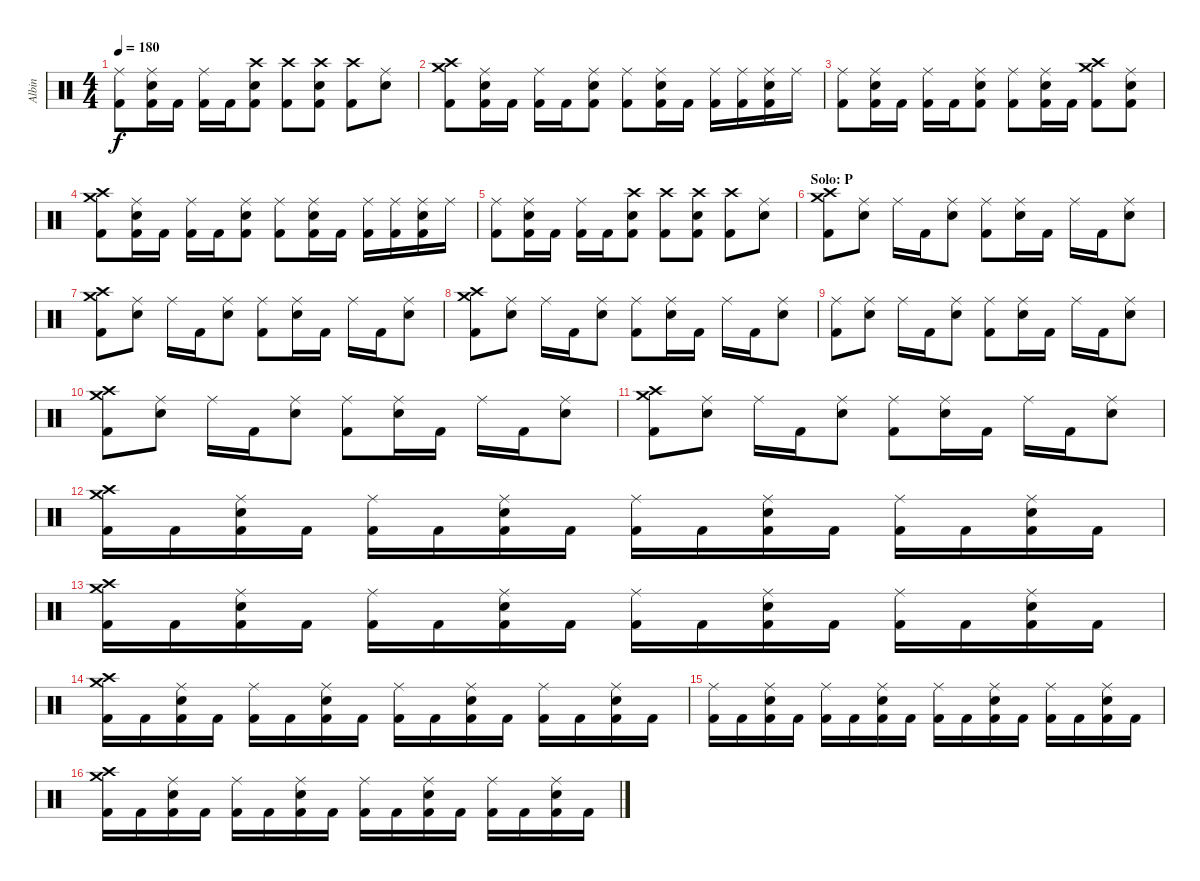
\track ("Albin" "Albin") {instrument percussion}
\staff {score}
\articulation defaults
\ts (4 4)
\tempo 180
\clef neutral
\ks c
("Kick (hit) 2" "Ride (middle)").8{dy f} ("Kick (hit) 2" "Electric Snare (hit)" "Ride (middle)").16 "Kick (hit) 2".16 ("Kick (hit) 2" "Ride (middle)").16 "Kick (hit) 2".16 ("Kick (hit) 2" "Electric Snare (hit)" "Crash high (hit)").8 ("Kick (hit) 2" "Crash high (hit)").8 ("Kick (hit) 2" "Electric Snare (hit)" "Crash high (hit)").8 ("Kick (hit) 2" "Crash high (hit)").8 ("Electric Snare (hit)" "Ride (middle)").8 |
("Kick (hit) 2" "Crash high (hit)" "Crash medium (hit)").8 ("Kick (hit) 2" "Electric Snare (hit)" "Ride (middle)").16 "Kick (hit) 2".16 ("Kick (hit) 2" "Ride (middle)").16 "Kick (hit) 2".16 ("Kick (hit) 2" "Electric Snare (hit)" "Ride (middle)").8 ("Kick (hit) 2" "Ride (middle)").8 ("Kick (hit) 2" "Electric Snare (hit)" "Ride (middle)").16 "Kick (hit) 2".16 ("Kick (hit) 2" "Ride (middle)").16 ("Kick (hit) 2" "Ride (middle)").16 ("Kick (hit) 2" "Electric Snare (hit)" "Ride (middle)").16 "Ride (middle)".16 |
("Kick (hit) 2" "Ride (middle)").8 ("Kick (hit) 2" "Electric Snare (hit)" "Ride (middle)").16 "Kick (hit) 2".16 ("Kick (hit) 2" "Ride (middle)").16 "Kick (hit) 2".16 ("Kick (hit) 2" "Electric Snare (hit)" "Ride (middle)").8 ("Kick (hit) 2" "Ride (middle)").8 ("Kick (hit) 2" "Electric Snare (hit)" "Ride (middle)").16 "Kick (hit) 2".16 ("Kick (hit) 2" "Crash high (hit)" "Crash medium (hit)").8 ("Kick (hit) 2" "Electric Snare (hit)" "Ride (middle)").8 |
("Kick (hit) 2" "Crash high (hit)" "Crash medium (hit)").8 ("Kick (hit) 2" "Electric Snare (hit)" "Ride (middle)").16 "Kick (hit) 2".16 ("Kick (hit) 2" "Ride (middle)").16 "Kick (hit) 2".16 ("Kick (hit) 2" "Electric Snare (hit)" "Ride (middle)").8 ("Kick (hit) 2" "Ride (middle)").8 ("Kick (hit) 2" "Electric Snare (hit)" "Ride (middle)").16 "Kick (hit) 2".16 ("Kick (hit) 2" "Ride (middle)").16 ("Kick (hit) 2" "Ride (middle)").16 ("Kick (hit) 2" "Electric Snare (hit)" "Ride (middle)").16 "Ride (middle)".16 |
("Kick (hit) 2" "Ride (middle)").8 ("Kick (hit) 2" "Electric Snare (hit)" "Ride (middle)").16 "Kick (hit) 2".16 ("Kick (hit) 2" "Ride (middle)").16 "Kick (hit) 2".16 ("Kick (hit) 2" "Electric Snare (hit)" "Crash high (hit)").8 ("Kick (hit) 2" "Crash high (hit)").8 ("Kick (hit) 2" "Electric Snare (hit)" "Crash high (hit)").8 ("Kick (hit) 2" "Crash high (hit)").8 ("Electric Snare (hit)" "Ride (middle)").8 |
\section ("" "Solo: P")
("Kick (hit) 2" "Crash high (hit)" "Crash medium (hit)").8 ("Electric Snare (hit)" "Ride (middle)").8 "Ride (middle)".16 "Kick (hit) 2".16 ("Electric Snare (hit)" "Ride (middle)").8 ("Kick (hit) 2" "Ride (middle)").8 ("Electric Snare (hit)" "Ride (middle)").16 "Kick (hit) 2".16 "Ride (middle)".16 "Kick (hit) 2".16 ("Electric Snare (hit)" "Ride (middle)").8 |
("Kick (hit) 2" "Crash high (hit)" "Crash medium (hit)").8 ("Electric Snare (hit)" "Ride (middle)").8 "Ride (middle)".16 "Kick (hit) 2".16 ("Electric Snare (hit)" "Ride (middle)").8 ("Kick (hit) 2" "Ride (middle)").8 ("Electric Snare (hit)" "Ride (middle)").16 "Kick (hit) 2".16 "Ride (middle)".16 "Kick (hit) 2".16 ("Electric Snare (hit)" "Ride (middle)").8 |
("Kick (hit) 2" "Crash high (hit)" "Crash medium (hit)").8 ("Electric Snare (hit)" "Ride (middle)").8 "Ride (middle)".16 "Kick (hit) 2".16 ("Electric Snare (hit)" "Ride (middle)").8 ("Kick (hit) 2" "Ride (middle)").8 ("Electric Snare (hit)" "Ride (middle)").16 "Kick (hit) 2".16 "Ride (middle)".16 "Kick (hit) 2".16 ("Electric Snare (hit)" "Ride (middle)").8 |
("Kick (hit) 2" "Ride (middle)").8 ("Electric Snare (hit)" "Ride (middle)").8 "Ride (middle)".16 "Kick (hit) 2".16 ("Electric Snare (hit)" "Ride (middle)").8 ("Kick (hit) 2" "Ride (middle)").8 ("Electric Snare (hit)" "Ride (middle)").16 "Kick (hit) 2".16 "Ride (middle)".16 "Kick (hit) 2".16 ("Electric Snare (hit)" "Ride (middle)").8 |
("Kick (hit) 2" "Crash high (hit)" "Crash medium (hit)").8 ("Electric Snare (hit)" "Ride (middle)").8 "Ride (middle)".16 "Kick (hit) 2".16 ("Electric Snare (hit)" "Ride (middle)").8 ("Kick (hit) 2" "Ride (middle)").8 ("Electric Snare (hit)" "Ride (middle)").16 "Kick (hit) 2".16 "Ride (middle)".16 "Kick (hit) 2".16 ("Electric Snare (hit)" "Ride (middle)").8 |
("Kick (hit) 2" "Crash high (hit)" "Crash medium (hit)").8 ("Electric Snare (hit)" "Ride (middle)").8 "Ride (middle)".16 "Kick (hit) 2".16 ("Electric Snare (hit)" "Ride (middle)").8 ("Kick (hit) 2" "Ride (middle)").8 ("Electric Snare (hit)" "Ride (middle)").16 "Kick (hit) 2".16 "Ride (middle)".16 "Kick (hit) 2".16 ("Electric Snare (hit)" "Ride (middle)").8 |
("Kick (hit) 2" "Crash high (hit)" "Crash medium (hit)").16 "Kick (hit) 2".16 ("Kick (hit) 2" "Electric Snare (hit)" "Ride (middle)").16 "Kick (hit) 2".16 ("Kick (hit) 2" "Ride (middle)").16 "Kick (hit) 2".16 ("Kick (hit) 2" "Electric Snare (hit)" "Ride (middle)").16 "Kick (hit) 2".16 ("Kick (hit) 2" "Ride (middle)").16 "Kick (hit) 2".16 ("Kick (hit) 2" "Electric Snare (hit)" "Ride (middle)").16 "Kick (hit) 2".16 ("Kick (hit) 2" "Ride (middle)").16 "Kick (hit) 2".16 ("Kick (hit) 2" "Electric Snare (hit)" "Ride (middle)").16 "Kick (hit) 2".16 |
("Kick (hit) 2" "Crash high (hit)" "Crash medium (hit)").16 "Kick (hit) 2".16 ("Kick (hit) 2" "Electric Snare (hit)" "Ride (middle)").16 "Kick (hit) 2".16 ("Kick (hit) 2" "Ride (middle)").16 "Kick (hit) 2".16 ("Kick (hit) 2" "Electric Snare (hit)" "Ride (middle)").16 "Kick (hit) 2".16 ("Kick (hit) 2" "Ride (middle)").16 "Kick (hit) 2".16 ("Kick (hit) 2" "Electric Snare (hit)" "Ride (middle)").16 "Kick (hit) 2".16 ("Kick (hit) 2" "Ride (middle)").16 "Kick (hit) 2".16 ("Kick (hit) 2" "Electric Snare (hit)" "Ride (middle)").16 "Kick (hit) 2".16 |
("Kick (hit) 2" "Crash high (hit)" "Crash medium (hit)").16 "Kick (hit) 2".16 ("Kick (hit) 2" "Electric Snare (hit)" "Ride (middle)").16 "Kick (hit) 2".16 ("Kick (hit) 2" "Ride (middle)").16 "Kick (hit) 2".16 ("Kick (hit) 2" "Electric Snare (hit)" "Ride (middle)").16 "Kick (hit) 2".16 ("Kick (hit) 2" "Ride (middle)").16 "Kick (hit) 2".16 ("Kick (hit) 2" "Electric Snare (hit)" "Ride (middle)").16 "Kick (hit) 2".16 ("Kick (hit) 2" "Ride (middle)").16 "Kick (hit) 2".16 ("Kick (hit) 2" "Electric Snare (hit)" "Ride (middle)").16 "Kick (hit) 2".16 |
("Kick (hit) 2" "Ride (middle)").16 "Kick (hit) 2".16 ("Kick (hit) 2" "Electric Snare (hit)" "Ride (middle)").16 "Kick (hit) 2".16 ("Kick (hit) 2" "Ride (middle)").16 "Kick (hit) 2".16 ("Kick (hit) 2" "Electric Snare (hit)" "Ride (middle)").16 "Kick (hit) 2".16 ("Kick (hit) 2" "Ride (middle)").16 "Kick (hit) 2".16 ("Kick (hit) 2" "Electric Snare (hit)" "Ride (middle)").16 "Kick (hit) 2".16 ("Kick (hit) 2" "Ride (middle)").16 "Kick (hit) 2".16 ("Kick (hit) 2" "Electric Snare (hit)" "Ride (middle)").16 "Kick (hit) 2".16 |
("Kick (hit) 2" "Crash high (hit)" "Crash medium (hit)").16 "Kick (hit) 2".16 ("Kick (hit) 2" "Electric Snare (hit)" "Ride (middle)").16 "Kick (hit) 2".16 ("Kick (hit) 2" "Ride (middle)").16 "Kick (hit) 2".16 ("Kick (hit) 2" "Electric Snare (hit)" "Ride (middle)").16 "Kick (hit) 2".16 ("Kick (hit) 2" "Ride (middle)").16 "Kick (hit) 2".16 ("Kick (hit) 2" "Electric Snare (hit)" "Ride (middle)").16 "Kick (hit) 2".16 ("Kick (hit) 2" "Ride (middle)").16 "Kick (hit) 2".16 ("Kick (hit) 2" "Electric Snare (hit)" "Ride (middle)").16 "Kick (hit) 2".16
